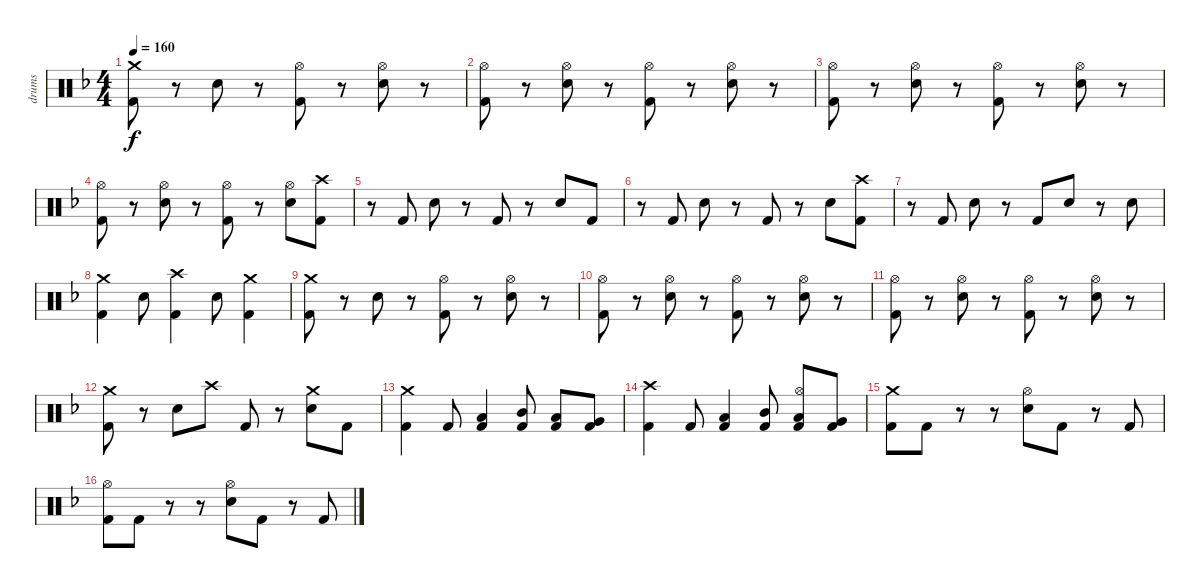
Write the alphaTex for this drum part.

\track ("drums" "drums") {instrument percussion}
\staff {score}
\articulation defaults
\ts (4 4)
\tempo 160
\clef neutral
\ks f
("Crash medium (hit)" "Kick (hit) 2").8{dy f} r.8 "Electric Snare (hit)".8 r.8 ("Hi-Hat (open)" "Kick (hit) 2").8 r.8 ("Hi-Hat (open)" "Electric Snare (hit)").8 r.8 |
("Hi-Hat (open)" "Kick (hit) 2").8 r.8 ("Hi-Hat (open)" "Electric Snare (hit)").8 r.8 ("Hi-Hat (open)" "Kick (hit) 2").8 r.8 ("Hi-Hat (open)" "Electric Snare (hit)").8 r.8 |
("Hi-Hat (open)" "Kick (hit) 2").8 r.8 ("Hi-Hat (open)" "Electric Snare (hit)").8 r.8 ("Hi-Hat (open)" "Kick (hit) 2").8 r.8 ("Hi-Hat (open)" "Electric Snare (hit)").8 r.8 |
("Hi-Hat (open)" "Kick (hit) 2").8 r.8 ("Hi-Hat (open)" "Electric Snare (hit)").8 r.8 ("Hi-Hat (open)" "Kick (hit) 2").8 r.8 ("Hi-Hat (open)" "Electric Snare (hit)").8 ("Crash high (hit)" "Kick (hit) 2").8 |
r.8 "Kick (hit) 2".8 "Electric Snare (hit)".8 r.8 "Kick (hit) 2".8 r.8 "Electric Snare (hit)".8 "Kick (hit) 2".8 |
r.8 "Kick (hit) 2".8 "Electric Snare (hit)".8 r.8 "Kick (hit) 2".8 r.8 "Electric Snare (hit)".8 ("Crash high (hit)" "Kick (hit) 2").8 |
r.8 "Kick (hit) 2".8 "Electric Snare (hit)".8 r.8 "Kick (hit) 2".8 "Electric Snare (hit)".8 r.8 "Electric Snare (hit)".8 |
("Crash medium (hit)" "Kick (hit) 2").4 "Electric Snare (hit)".8 ("Crash high (hit)" "Kick (hit) 2").4 "Electric Snare (hit)".8 ("Crash medium (hit)" "Kick (hit) 2").4 |
("Crash medium (hit)" "Kick (hit) 2").8 r.8 "Electric Snare (hit)".8 r.8 ("Hi-Hat (open)" "Kick (hit) 2").8 r.8 ("Hi-Hat (open)" "Electric Snare (hit)").8 r.8 |
("Hi-Hat (open)" "Kick (hit) 2").8 r.8 ("Hi-Hat (open)" "Electric Snare (hit)").8 r.8 ("Hi-Hat (open)" "Kick (hit) 2").8 r.8 ("Hi-Hat (open)" "Electric Snare (hit)").8 r.8 |
("Hi-Hat (open)" "Kick (hit) 2").8 r.8 ("Hi-Hat (open)" "Electric Snare (hit)").8 r.8 ("Hi-Hat (open)" "Kick (hit) 2").8 r.8 ("Hi-Hat (open)" "Electric Snare (hit)").8 r.8 |
("Crash medium (hit)" "Kick (hit) 2").8 r.8 "Electric Snare (hit)".8 "Crash high (hit)".8 "Kick (hit) 2".8 r.8 ("Crash medium (hit)" "Electric Snare (hit)").8 "Kick (hit) 2".8 |
("Crash medium (hit)" "Kick (hit) 2").4 "Kick (hit) 2".8 ("Low Tom (hit)" "Kick (hit) 2").4 ("Mid Tom (hit)" "Kick (hit) 2").8 ("Low Tom (hit)" "Kick (hit) 2").8 ("Very Low Tom (hit)" "Kick (hit) 2").8 |
("Crash high (hit)" "Kick (hit) 2").4 "Kick (hit) 2".8 ("Low Tom (hit)" "Kick (hit) 2").4 ("Mid Tom (hit)" "Kick (hit) 2").8 ("Hi-Hat (open)" "Low Tom (hit)" "Kick (hit) 2").8 ("Very Low Tom (hit)" "Kick (hit) 2").8 |
("Crash medium (hit)" "Kick (hit) 2").8 "Kick (hit) 2".8 r.8 r.8 ("Hi-Hat (open)" "Electric Snare (hit)").8 "Kick (hit) 2".8 r.8 "Kick (hit) 2".8 |
("Hi-Hat (open)" "Kick (hit) 2").8 "Kick (hit) 2".8 r.8 r.8 ("Hi-Hat (open)" "Electric Snare (hit)").8 "Kick (hit) 2".8 r.8 "Kick (hit) 2".8
